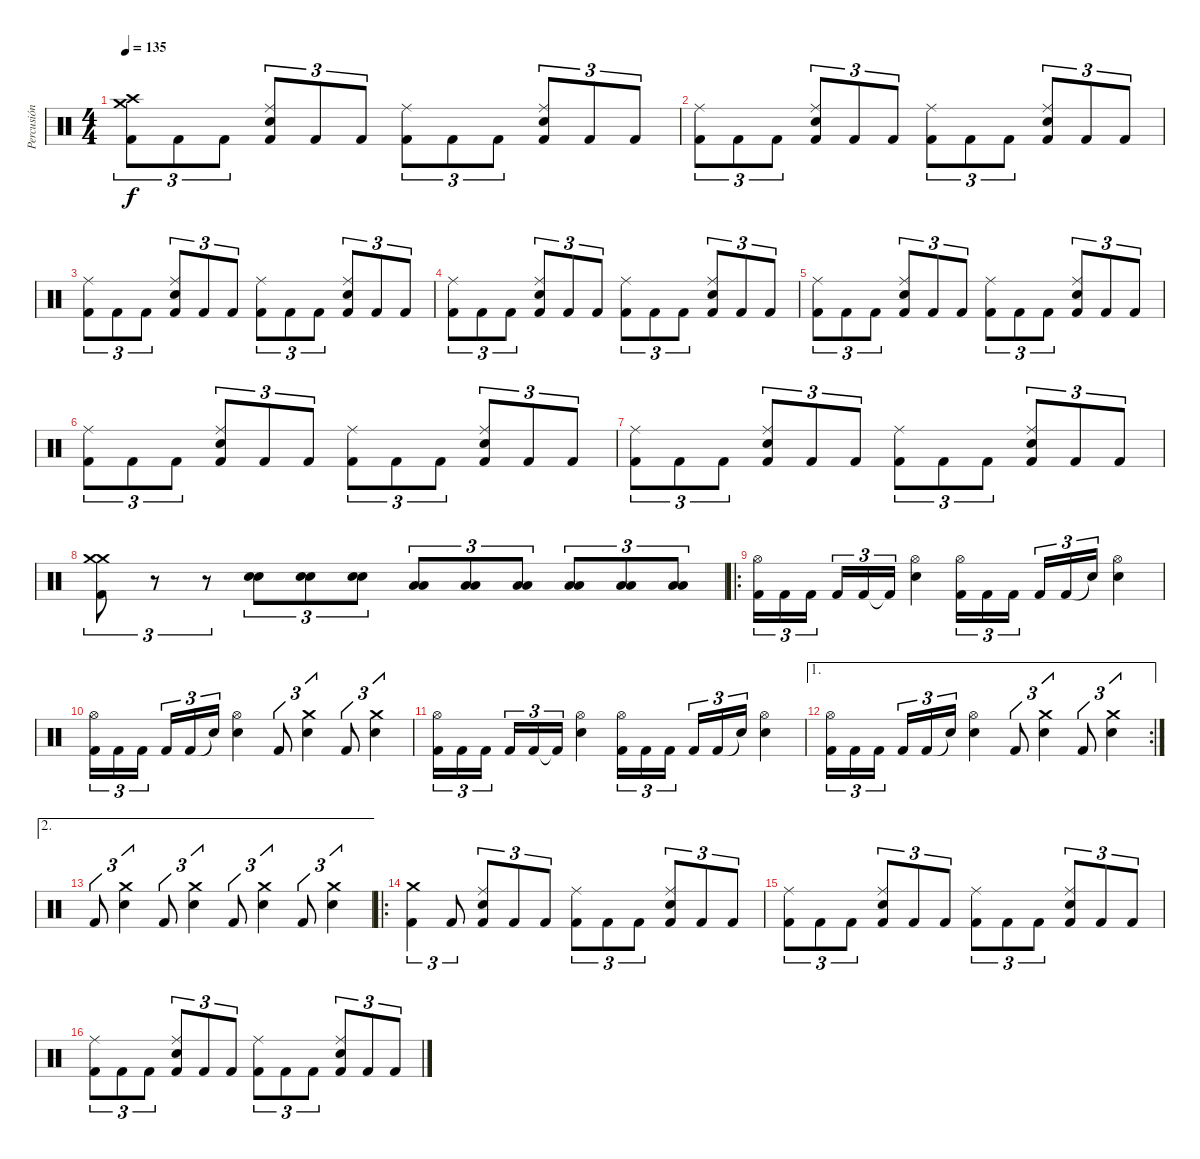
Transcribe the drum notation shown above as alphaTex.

\track ("Percusión" "Percusión") {instrument percussion}
\staff {score}
\articulation defaults
\ts (4 4)
\tempo 135
\clef neutral
\ks c
("Crash high (hit)" "Crash medium (hit)" "Kick (hit) 2").8{tu (3 2) dy f} "Kick (hit) 2".8{tu (3 2)} "Kick (hit) 2".8{tu (3 2)} ("Ride (middle)" "Snare (hit) 2" "Kick (hit) 2").8{tu (3 2)} "Kick (hit) 2".8{tu (3 2)} "Kick (hit) 2".8{tu (3 2)} ("Ride (middle)" "Kick (hit) 2").8{tu (3 2)} "Kick (hit) 2".8{tu (3 2)} "Kick (hit) 2".8{tu (3 2)} ("Ride (middle)" "Snare (hit) 2" "Kick (hit) 2").8{tu (3 2)} "Kick (hit) 2".8{tu (3 2)} "Kick (hit) 2".8{tu (3 2)} |
("Ride (middle)" "Kick (hit) 2").8{tu (3 2)} "Kick (hit) 2".8{tu (3 2)} "Kick (hit) 2".8{tu (3 2)} ("Ride (middle)" "Snare (hit) 2" "Kick (hit) 2").8{tu (3 2)} "Kick (hit) 2".8{tu (3 2)} "Kick (hit) 2".8{tu (3 2)} ("Ride (middle)" "Kick (hit) 2").8{tu (3 2)} "Kick (hit) 2".8{tu (3 2)} "Kick (hit) 2".8{tu (3 2)} ("Ride (middle)" "Snare (hit) 2" "Kick (hit) 2").8{tu (3 2)} "Kick (hit) 2".8{tu (3 2)} "Kick (hit) 2".8{tu (3 2)} |
("Ride (middle)" "Kick (hit) 2").8{tu (3 2)} "Kick (hit) 2".8{tu (3 2)} "Kick (hit) 2".8{tu (3 2)} ("Ride (middle)" "Snare (hit) 2" "Kick (hit) 2").8{tu (3 2)} "Kick (hit) 2".8{tu (3 2)} "Kick (hit) 2".8{tu (3 2)} ("Ride (middle)" "Kick (hit) 2").8{tu (3 2)} "Kick (hit) 2".8{tu (3 2)} "Kick (hit) 2".8{tu (3 2)} ("Ride (middle)" "Snare (hit) 2" "Kick (hit) 2").8{tu (3 2)} "Kick (hit) 2".8{tu (3 2)} "Kick (hit) 2".8{tu (3 2)} |
("Ride (middle)" "Kick (hit) 2").8{tu (3 2)} "Kick (hit) 2".8{tu (3 2)} "Kick (hit) 2".8{tu (3 2)} ("Ride (middle)" "Snare (hit) 2" "Kick (hit) 2").8{tu (3 2)} "Kick (hit) 2".8{tu (3 2)} "Kick (hit) 2".8{tu (3 2)} ("Ride (middle)" "Kick (hit) 2").8{tu (3 2)} "Kick (hit) 2".8{tu (3 2)} "Kick (hit) 2".8{tu (3 2)} ("Ride (middle)" "Snare (hit) 2" "Kick (hit) 2").8{tu (3 2)} "Kick (hit) 2".8{tu (3 2)} "Kick (hit) 2".8{tu (3 2)} |
("Ride (middle)" "Kick (hit) 2").8{tu (3 2)} "Kick (hit) 2".8{tu (3 2)} "Kick (hit) 2".8{tu (3 2)} ("Ride (middle)" "Snare (hit) 2" "Kick (hit) 2").8{tu (3 2)} "Kick (hit) 2".8{tu (3 2)} "Kick (hit) 2".8{tu (3 2)} ("Ride (middle)" "Kick (hit) 2").8{tu (3 2)} "Kick (hit) 2".8{tu (3 2)} "Kick (hit) 2".8{tu (3 2)} ("Ride (middle)" "Snare (hit) 2" "Kick (hit) 2").8{tu (3 2)} "Kick (hit) 2".8{tu (3 2)} "Kick (hit) 2".8{tu (3 2)} |
("Ride (middle)" "Kick (hit) 2").8{tu (3 2)} "Kick (hit) 2".8{tu (3 2)} "Kick (hit) 2".8{tu (3 2)} ("Ride (middle)" "Snare (hit) 2" "Kick (hit) 2").8{tu (3 2)} "Kick (hit) 2".8{tu (3 2)} "Kick (hit) 2".8{tu (3 2)} ("Ride (middle)" "Kick (hit) 2").8{tu (3 2)} "Kick (hit) 2".8{tu (3 2)} "Kick (hit) 2".8{tu (3 2)} ("Ride (middle)" "Snare (hit) 2" "Kick (hit) 2").8{tu (3 2)} "Kick (hit) 2".8{tu (3 2)} "Kick (hit) 2".8{tu (3 2)} |
("Ride (middle)" "Kick (hit) 2").8{tu (3 2)} "Kick (hit) 2".8{tu (3 2)} "Kick (hit) 2".8{tu (3 2)} ("Ride (middle)" "Snare (hit) 2" "Kick (hit) 2").8{tu (3 2)} "Kick (hit) 2".8{tu (3 2)} "Kick (hit) 2".8{tu (3 2)} ("Ride (middle)" "Kick (hit) 2").8{tu (3 2)} "Kick (hit) 2".8{tu (3 2)} "Kick (hit) 2".8{tu (3 2)} ("Ride (middle)" "Snare (hit) 2" "Kick (hit) 2").8{tu (3 2)} "Kick (hit) 2".8{tu (3 2)} "Kick (hit) 2".8{tu (3 2)} |
("Crash medium (hit)" "Crash medium (hit)" "Kick (hit) 2").8{tu (3 2)} r.8{tu (3 2)} r.8{tu (3 2)} ("Snare (hit) 2" "Snare (hit) 2").8{tu (3 2)} ("Snare (hit) 2" "Snare (hit) 2").8{tu (3 2)} ("Snare (hit) 2" "Snare (hit) 2").8{tu (3 2)} ("Low Tom (hit)" "Low Tom (hit)").8{tu (3 2)} ("Low Tom (hit)" "Low Tom (hit)").8{tu (3 2)} ("Low Tom (hit)" "Low Tom (hit)").8{tu (3 2)} ("Low Floor Tom (hit)" "Low Floor Tom (hit)").8{tu (3 2)} ("Low Floor Tom (hit)" "Low Floor Tom (hit)").8{tu (3 2)} ("Low Floor Tom (hit)" "Low Floor Tom (hit)").8{tu (3 2)} |
\ro
("Hi-Hat (open)" "Kick (hit) 2").16{tu (3 2)} "Kick (hit) 2".16{tu (3 2)} "Kick (hit) 2".16{tu (3 2) beam splitsecondary} "Kick (hit) 2".16{tu (3 2)} "Kick (hit) 2".16{tu (3 2)} "Kick (hit) 2"{t}.16{tu (3 2)} ("Hi-Hat (open)" "Snare (hit) 2").4 ("Hi-Hat (open)" "Kick (hit) 2").16{tu (3 2)} "Kick (hit) 2".16{tu (3 2)} "Kick (hit) 2".16{tu (3 2) beam splitsecondary} "Kick (hit) 2".16{tu (3 2)} "Kick (hit) 2".16{tu (3 2)} "Snare (hit)"{t}.16{tu (3 2)} ("Hi-Hat (open)" "Snare (hit) 2").4 |
("Hi-Hat (open)" "Kick (hit) 2").16{tu (3 2)} "Kick (hit) 2".16{tu (3 2)} "Kick (hit) 2".16{tu (3 2) beam splitsecondary} "Kick (hit) 2".16{tu (3 2)} "Kick (hit) 2".16{tu (3 2)} "Snare (hit)"{t}.16{tu (3 2)} ("Hi-Hat (open)" "Snare (hit) 2").4 "Kick (hit) 2".8{tu (3 2)} ("Crash medium (hit)" "Snare (hit) 2").4{tu (3 2)} "Kick (hit) 2".8{tu (3 2)} ("Crash medium (hit)" "Snare (hit) 2").4{tu (3 2)} |
("Hi-Hat (open)" "Kick (hit) 2").16{tu (3 2)} "Kick (hit) 2".16{tu (3 2)} "Kick (hit) 2".16{tu (3 2) beam splitsecondary} "Kick (hit) 2".16{tu (3 2)} "Kick (hit) 2".16{tu (3 2)} "Kick (hit) 2"{t}.16{tu (3 2)} ("Hi-Hat (open)" "Snare (hit) 2").4 ("Hi-Hat (open)" "Kick (hit) 2").16{tu (3 2)} "Kick (hit) 2".16{tu (3 2)} "Kick (hit) 2".16{tu (3 2) beam splitsecondary} "Kick (hit) 2".16{tu (3 2)} "Kick (hit) 2".16{tu (3 2)} "Snare (hit)"{t}.16{tu (3 2)} ("Hi-Hat (open)" "Snare (hit) 2").4 |
\ae 1
\rc 2
("Hi-Hat (open)" "Kick (hit) 2").16{tu (3 2)} "Kick (hit) 2".16{tu (3 2)} "Kick (hit) 2".16{tu (3 2) beam splitsecondary} "Kick (hit) 2".16{tu (3 2)} "Kick (hit) 2".16{tu (3 2)} "Snare (hit)"{t}.16{tu (3 2)} ("Hi-Hat (open)" "Snare (hit) 2").4 "Kick (hit) 2".8{tu (3 2)} ("Crash medium (hit)" "Snare (hit) 2").4{tu (3 2)} "Kick (hit) 2".8{tu (3 2)} ("Crash medium (hit)" "Snare (hit) 2").4{tu (3 2)} |
\ae 2 "Kick (hit) 2".8{tu (3 2)}
("Crash medium (hit)" "Snare (hit) 2").4{tu (3 2)} "Kick (hit) 2".8{tu (3 2)} ("Crash medium (hit)" "Snare (hit) 2").4{tu (3 2)} "Kick (hit) 2".8{tu (3 2)} ("Crash medium (hit)" "Snare (hit) 2").4{tu (3 2)} "Kick (hit) 2".8{tu (3 2)} ("Crash medium (hit)" "Snare (hit) 2").4{tu (3 2)} |
\ro
("Crash medium (hit)" "Kick (hit) 2").4{tu (3 2)} "Kick (hit) 2".8{tu (3 2)} ("Ride (middle)" "Kick (hit) 2" "Snare (hit) 2").8{tu (3 2)} "Kick (hit) 2".8{tu (3 2)} "Kick (hit) 2".8{tu (3 2)} ("Ride (middle)" "Kick (hit) 2").8{tu (3 2)} "Kick (hit) 2".8{tu (3 2)} "Kick (hit) 2".8{tu (3 2)} ("Ride (middle)" "Kick (hit) 2" "Snare (hit) 2").8{tu (3 2)} "Kick (hit) 2".8{tu (3 2)} "Kick (hit) 2".8{tu (3 2)} |
("Ride (middle)" "Kick (hit) 2").8{tu (3 2)} "Kick (hit) 2".8{tu (3 2)} "Kick (hit) 2".8{tu (3 2)} ("Ride (middle)" "Snare (hit) 2" "Kick (hit) 2").8{tu (3 2)} "Kick (hit) 2".8{tu (3 2)} "Kick (hit) 2".8{tu (3 2)} ("Ride (middle)" "Kick (hit) 2").8{tu (3 2)} "Kick (hit) 2".8{tu (3 2)} "Kick (hit) 2".8{tu (3 2)} ("Ride (middle)" "Snare (hit) 2" "Kick (hit) 2").8{tu (3 2)} "Kick (hit) 2".8{tu (3 2)} "Kick (hit) 2".8{tu (3 2)} |
("Ride (middle)" "Kick (hit) 2").8{tu (3 2)} "Kick (hit) 2".8{tu (3 2)} "Kick (hit) 2".8{tu (3 2)} ("Ride (middle)" "Snare (hit) 2" "Kick (hit) 2").8{tu (3 2)} "Kick (hit) 2".8{tu (3 2)} "Kick (hit) 2".8{tu (3 2)} ("Ride (middle)" "Kick (hit) 2").8{tu (3 2)} "Kick (hit) 2".8{tu (3 2)} "Kick (hit) 2".8{tu (3 2)} ("Ride (middle)" "Snare (hit) 2" "Kick (hit) 2").8{tu (3 2)} "Kick (hit) 2".8{tu (3 2)} "Kick (hit) 2".8{tu (3 2)}
